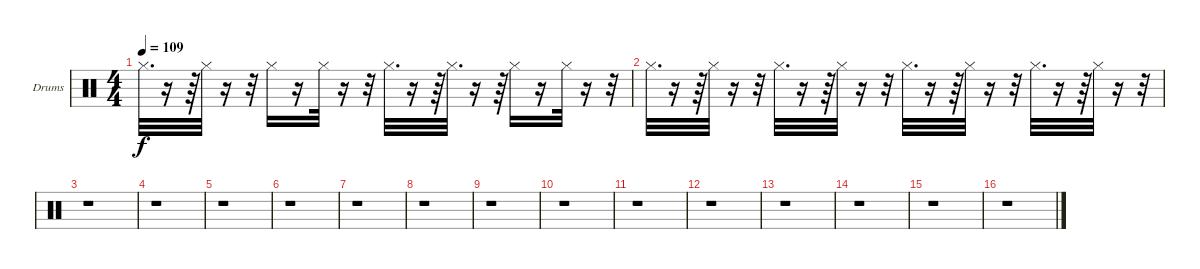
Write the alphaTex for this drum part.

\bracketExtendMode groupsimilarinstruments
\firstSystemTrackNameOrientation horizontal
\otherSystemsTrackNameOrientation horizontal
\track ("Drumkit" "Drums") {instrument percussion}
\staff {score}
\articulation defaults
\ts (4 4)
\tempo 109
\clef neutral
\ks c "Hi-Hat (closed)".32{d dy f}
r.16 r.64 "Hi-Hat (closed)".32 r.16 r.32 "Hi-Hat (closed)".16 r.16 "Hi-Hat (closed)".32 r.16 r.32 "Hi-Hat (closed)".32{d} r.16 r.64 "Hi-Hat (closed)".32{d} r.16 r.64 "Hi-Hat (closed)".16 r.16 "Hi-Hat (closed)".32 r.16 r.32 |
"Hi-Hat (closed)".32{d} r.16 r.64 "Hi-Hat (closed)".32 r.16 r.32 "Hi-Hat (closed)".32{d} r.16 r.64 "Hi-Hat (closed)".32 r.16 r.32 "Hi-Hat (closed)".32{d} r.16 r.64 "Hi-Hat (closed)".32 r.16 r.32 "Hi-Hat (closed)".32{d} r.16 r.64 "Hi-Hat (closed)".32 r.16 r.32 |
r.1 |
r.1 |
r.1 |
r.1 |
r.1 |
r.1 |
r.1 |
r.1 |
r.1 |
r.1 |
r.1 |
r.1 |
r.1 |
r.1
